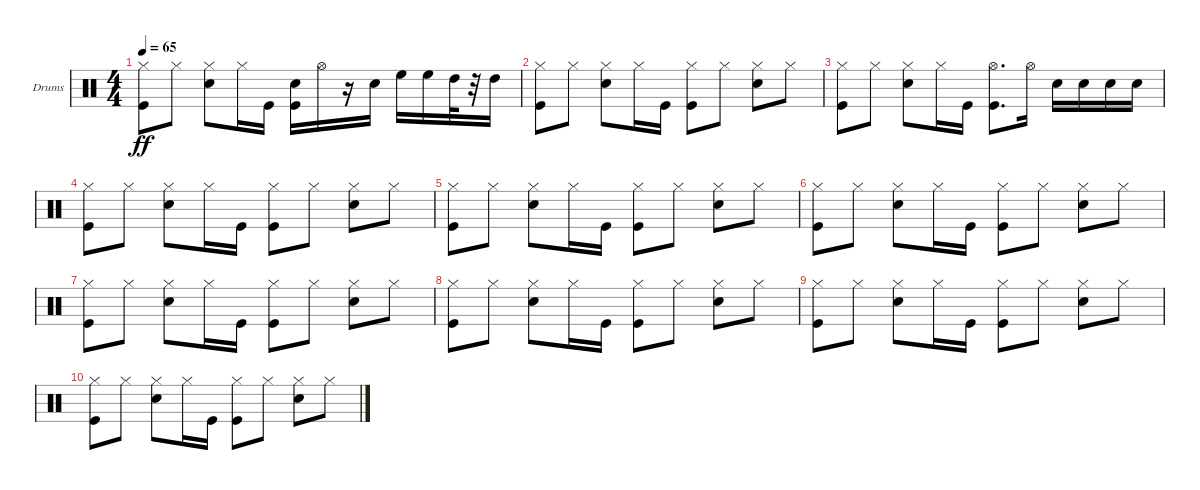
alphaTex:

\bracketExtendMode groupsimilarinstruments
\firstSystemTrackNameOrientation horizontal
\otherSystemsTrackNameOrientation horizontal
\track ("Drumkit" "Drums") {instrument percussion}
\staff {score}
\articulation defaults
\ts (4 4)
\tempo 65
\clef neutral
\scale
0.333333
\ks c
("Hi-Hat (closed)" "Kick (hit)").8{dy ff} "Hi-Hat (closed)".8 ("Snare (hit) 2" "Hi-Hat (closed)").8 "Hi-Hat (closed)".16 "Kick (hit)".16 ("Snare (hit) 2" "Kick (hit)").16 "Hi-Hat (open)".16 r.16 "Snare (hit) 2".16 "High Floor Tom (hit)".16 "High Floor Tom (hit)".16 "High Tom (hit)".32 r.32 "High Tom (hit)".16 |
\scale
0.333333 ("Hi-Hat (closed)" "Kick (hit)").8 "Hi-Hat (closed)".8 ("Snare (hit) 2" "Hi-Hat (closed)").8 "Hi-Hat (closed)".16 "Kick (hit)".16 ("Hi-Hat (closed)" "Kick (hit)").8 "Hi-Hat (closed)".8 ("Hi-Hat (closed)" "Snare (hit) 2").8 "Hi-Hat (closed)".8 |
\scale
0.333333 ("Hi-Hat (closed)" "Kick (hit)").8 "Hi-Hat (closed)".8 ("Snare (hit) 2" "Hi-Hat (closed)").8 "Hi-Hat (closed)".16 "Kick (hit)".16 ("Hi-Hat (open)" "Kick (hit)").8{d} "Hi-Hat (open)".16 "Snare (hit) 2".16 "Snare (hit) 2".16 "Snare (hit) 2".16 "Snare (hit) 2".16 |
\scale
0.333333 ("Hi-Hat (closed)" "Kick (hit)").8 "Hi-Hat (closed)".8 ("Snare (hit) 2" "Hi-Hat (closed)").8 "Hi-Hat (closed)".16 "Kick (hit)".16 ("Hi-Hat (closed)" "Kick (hit)").8 "Hi-Hat (closed)".8 ("Hi-Hat (closed)" "Snare (hit) 2").8 "Hi-Hat (closed)".8 |
\scale
0.333333 ("Hi-Hat (closed)" "Kick (hit)").8 "Hi-Hat (closed)".8 ("Snare (hit) 2" "Hi-Hat (closed)").8 "Hi-Hat (closed)".16 "Kick (hit)".16 ("Hi-Hat (closed)" "Kick (hit)").8 "Hi-Hat (closed)".8 ("Hi-Hat (closed)" "Snare (hit) 2").8 "Hi-Hat (closed)".8 |
\scale
0.333333 ("Hi-Hat (closed)" "Kick (hit)").8 "Hi-Hat (closed)".8 ("Snare (hit) 2" "Hi-Hat (closed)").8 "Hi-Hat (closed)".16 "Kick (hit)".16 ("Hi-Hat (closed)" "Kick (hit)").8 "Hi-Hat (closed)".8 ("Hi-Hat (closed)" "Snare (hit) 2").8 "Hi-Hat (closed)".8 |
\scale
0.333333 ("Hi-Hat (closed)" "Kick (hit)").8 "Hi-Hat (closed)".8 ("Snare (hit) 2" "Hi-Hat (closed)").8 "Hi-Hat (closed)".16 "Kick (hit)".16 ("Hi-Hat (closed)" "Kick (hit)").8 "Hi-Hat (closed)".8 ("Hi-Hat (closed)" "Snare (hit) 2").8 "Hi-Hat (closed)".8 |
\scale
0.333333 ("Hi-Hat (closed)" "Kick (hit)").8 "Hi-Hat (closed)".8 ("Snare (hit) 2" "Hi-Hat (closed)").8 "Hi-Hat (closed)".16 "Kick (hit)".16 ("Hi-Hat (closed)" "Kick (hit)").8 "Hi-Hat (closed)".8 ("Hi-Hat (closed)" "Snare (hit) 2").8 "Hi-Hat (closed)".8 |
\scale
0.333333 ("Hi-Hat (closed)" "Kick (hit)").8 "Hi-Hat (closed)".8 ("Snare (hit) 2" "Hi-Hat (closed)").8 "Hi-Hat (closed)".16 "Kick (hit)".16 ("Hi-Hat (closed)" "Kick (hit)").8 "Hi-Hat (closed)".8 ("Hi-Hat (closed)" "Snare (hit) 2").8 "Hi-Hat (closed)".8 |
("Hi-Hat (closed)" "Kick (hit)").8 "Hi-Hat (closed)".8 ("Snare (hit) 2" "Hi-Hat (closed)").8 "Hi-Hat (closed)".16 "Kick (hit)".16 ("Hi-Hat (closed)" "Kick (hit)").8 "Hi-Hat (closed)".8 ("Hi-Hat (closed)" "Snare (hit) 2").8 "Hi-Hat (closed)".8
